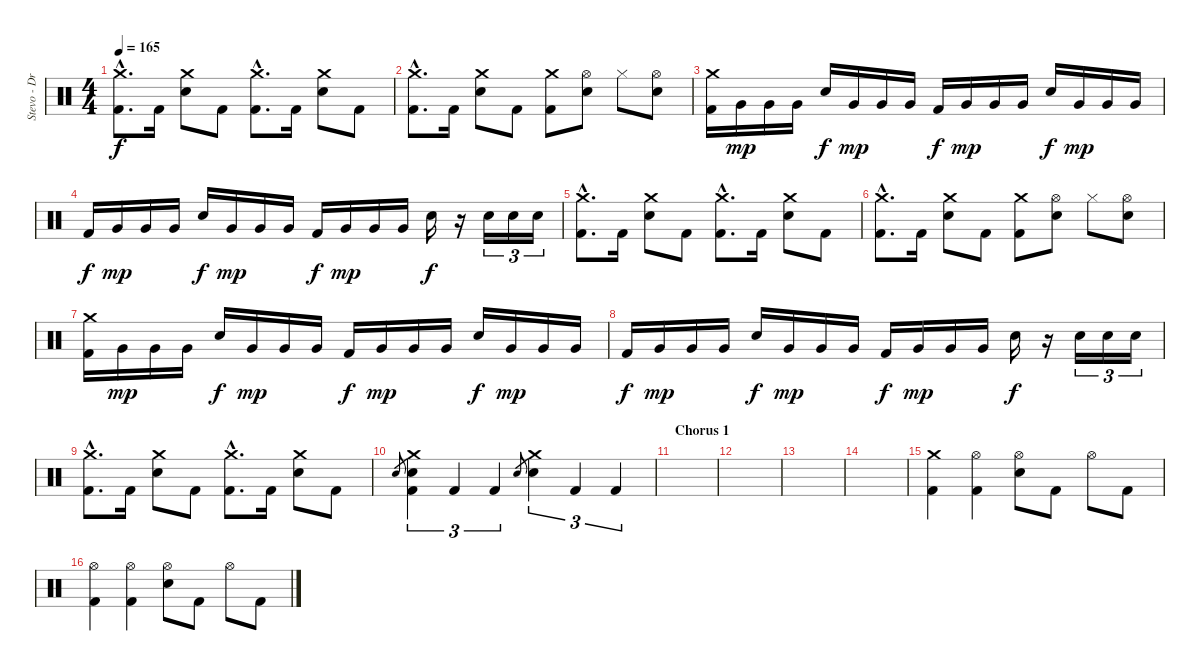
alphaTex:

\track ("Stevo - Drums" "Stevo - Dr") {instrument percussion}
\staff {score}
\articulation defaults
\ts (4 4)
\tempo 165
\clef neutral
\ks c
("Crash medium (hit)"{hac} "Kick (hit) 2"{hac}).8{d dy f} "Kick (hit) 2".16 ("Crash medium (hit)" "Electric Snare (hit)").8 "Kick (hit) 2".8 ("Crash medium (hit)"{hac} "Kick (hit) 2"{hac}).8{d} "Kick (hit) 2".16 ("Crash medium (hit)" "Electric Snare (hit)").8 "Kick (hit) 2".8 |
("Crash medium (hit)"{hac} "Kick (hit) 2"{hac}).8{d} "Kick (hit) 2".16 ("Crash medium (hit)" "Electric Snare (hit)").8 "Kick (hit) 2".8 ("Crash medium (hit)" "Kick (hit) 2").8 ("Hi-Hat (open)" "Electric Snare (hit)").8 "Hi-Hat (closed)".8 ("Hi-Hat (open)" "Electric Snare (hit)").8 |
("Crash medium (hit)" "Kick (hit) 2").16 "Very Low Tom (hit)".16{dy mp} "Very Low Tom (hit)".16 "Very Low Tom (hit)".16 "Electric Snare (hit)".16{dy f} "Very Low Tom (hit)".16{dy mp} "Very Low Tom (hit)".16 "Very Low Tom (hit)".16 "Kick (hit) 2".16{dy f} "Very Low Tom (hit)".16{dy mp} "Very Low Tom (hit)".16 "Very Low Tom (hit)".16 "Electric Snare (hit)".16{dy f} "Very Low Tom (hit)".16{dy mp} "Very Low Tom (hit)".16 "Very Low Tom (hit)".16 |
"Kick (hit) 2".16{dy f} "Very Low Tom (hit)".16{dy mp} "Very Low Tom (hit)".16 "Very Low Tom (hit)".16 "Electric Snare (hit)".16{dy f} "Very Low Tom (hit)".16{dy mp} "Very Low Tom (hit)".16 "Very Low Tom (hit)".16 "Kick (hit) 2".16{dy f} "Very Low Tom (hit)".16{dy mp} "Very Low Tom (hit)".16 "Very Low Tom (hit)".16 "Electric Snare (hit)".16{dy f} r.16 "Electric Snare (hit)".16{tu (3 2)} "Electric Snare (hit)".16{tu (3 2)} "Electric Snare (hit)".16{tu (3 2)} |
("Crash medium (hit)"{hac} "Kick (hit) 2"{hac}).8{d} "Kick (hit) 2".16 ("Crash medium (hit)" "Electric Snare (hit)").8 "Kick (hit) 2".8 ("Crash medium (hit)"{hac} "Kick (hit) 2"{hac}).8{d} "Kick (hit) 2".16 ("Crash medium (hit)" "Electric Snare (hit)").8 "Kick (hit) 2".8 |
("Crash medium (hit)"{hac} "Kick (hit) 2"{hac}).8{d} "Kick (hit) 2".16 ("Crash medium (hit)" "Electric Snare (hit)").8 "Kick (hit) 2".8 ("Crash medium (hit)" "Kick (hit) 2").8 ("Hi-Hat (open)" "Electric Snare (hit)").8 "Hi-Hat (closed)".8 ("Hi-Hat (open)" "Electric Snare (hit)").8 |
("Crash medium (hit)" "Kick (hit) 2").16 "Very Low Tom (hit)".16{dy mp} "Very Low Tom (hit)".16 "Very Low Tom (hit)".16 "Electric Snare (hit)".16{dy f} "Very Low Tom (hit)".16{dy mp} "Very Low Tom (hit)".16 "Very Low Tom (hit)".16 "Kick (hit) 2".16{dy f} "Very Low Tom (hit)".16{dy mp} "Very Low Tom (hit)".16 "Very Low Tom (hit)".16 "Electric Snare (hit)".16{dy f} "Very Low Tom (hit)".16{dy mp} "Very Low Tom (hit)".16 "Very Low Tom (hit)".16 |
"Kick (hit) 2".16{dy f} "Very Low Tom (hit)".16{dy mp} "Very Low Tom (hit)".16 "Very Low Tom (hit)".16 "Electric Snare (hit)".16{dy f} "Very Low Tom (hit)".16{dy mp} "Very Low Tom (hit)".16 "Very Low Tom (hit)".16 "Kick (hit) 2".16{dy f} "Very Low Tom (hit)".16{dy mp} "Very Low Tom (hit)".16 "Very Low Tom (hit)".16 "Electric Snare (hit)".16{dy f} r.16 "Electric Snare (hit)".16{tu (3 2)} "Electric Snare (hit)".16{tu (3 2)} "Electric Snare (hit)".16{tu (3 2)} |
("Crash medium (hit)"{hac} "Kick (hit) 2"{hac}).8{d} "Kick (hit) 2".16 ("Crash medium (hit)" "Electric Snare (hit)").8 "Kick (hit) 2".8 ("Crash medium (hit)"{hac} "Kick (hit) 2"{hac}).8{d} "Kick (hit) 2".16 ("Crash medium (hit)" "Electric Snare (hit)").8 "Kick (hit) 2".8 |
"Electric Snare (hit)".8{gr} ("Crash medium (hit)" "Electric Snare (hit)" "Kick (hit) 2").4{tu (3 2)} "Kick (hit) 2".4{tu (3 2)} "Kick (hit) 2".4{tu (3 2)} "Electric Snare (hit)".8{gr} ("Crash medium (hit)" "Electric Snare (hit)").4{tu (3 2)} "Kick (hit) 2".4{tu (3 2)} "Kick (hit) 2".4{tu (3 2)} |
\section ("" "Chorus 1")
|
|
|
|
("Crash medium (hit)" "Kick (hit) 2").4 ("Hi-Hat (open)" "Kick (hit) 2").4 ("Electric Snare (hit)" "Hi-Hat (open)").8 "Kick (hit) 2".8 "Hi-Hat (open)".8 "Kick (hit) 2".8 |
("Hi-Hat (open)" "Kick (hit) 2").4 ("Hi-Hat (open)" "Kick (hit) 2").4 ("Electric Snare (hit)" "Hi-Hat (open)").8 "Kick (hit) 2".8 "Hi-Hat (open)".8 "Kick (hit) 2".8
